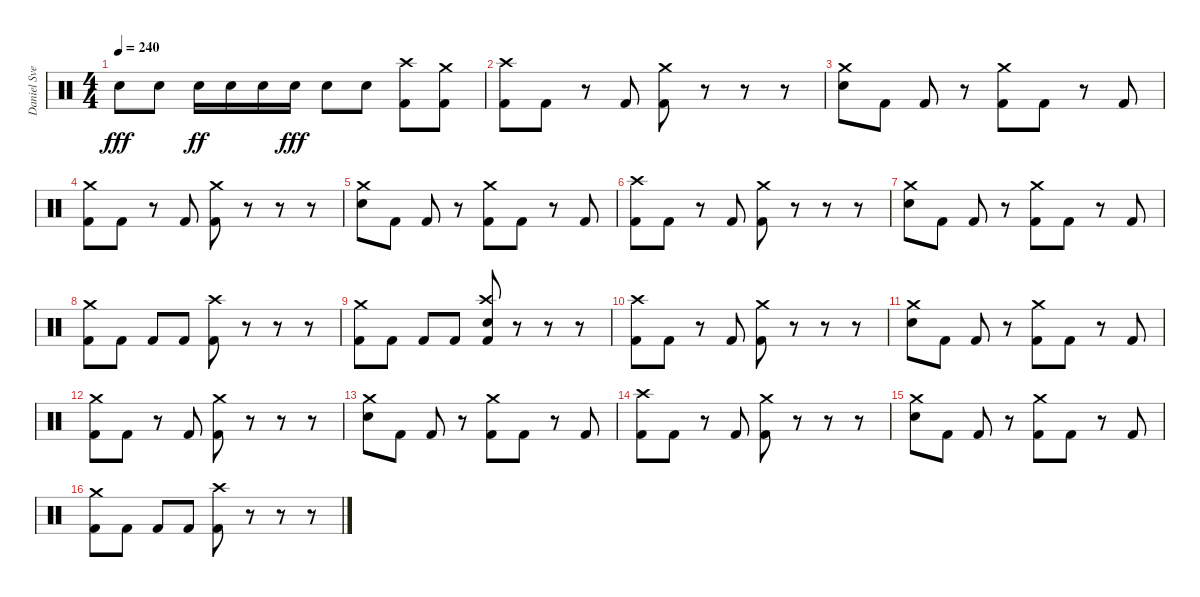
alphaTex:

\track ("Daniel Svensson" "Daniel Sve") {instrument percussion}
\staff {score}
\articulation defaults
\ts (4 4)
\tempo 240
\clef neutral
\ks c "Electric Snare (hit)".8{dy fff} "Electric Snare (hit)".8 "Electric Snare (hit)".16{dy ff} "Electric Snare (hit)".16 "Electric Snare (hit)".16 "Electric Snare (hit)".16{dy fff} "Electric Snare (hit)".8 "Electric Snare (hit)".8
("Crash high (hit)" "Kick (hit) 2").8 ("Crash medium (hit)" "Kick (hit) 2").8 |
("Crash high (hit)" "Kick (hit) 2").8 "Kick (hit) 2".8 r.8 "Kick (hit) 2".8 ("Crash medium (hit)" "Kick (hit) 2").8 r.8 r.8 r.8 |
("Crash medium (hit)" "Electric Snare (hit)").8 "Kick (hit) 2".8 "Kick (hit) 2".8 r.8 ("Crash medium (hit)" "Kick (hit) 2").8 "Kick (hit) 2".8 r.8 "Kick (hit) 2".8 |
("Crash medium (hit)" "Kick (hit) 2").8 "Kick (hit) 2".8 r.8 "Kick (hit) 2".8 ("Crash medium (hit)" "Kick (hit) 2").8 r.8 r.8 r.8 |
("Crash medium (hit)" "Electric Snare (hit)").8 "Kick (hit) 2".8 "Kick (hit) 2".8 r.8 ("Crash medium (hit)" "Kick (hit) 2").8 "Kick (hit) 2".8 r.8 "Kick (hit) 2".8 |
("Crash high (hit)" "Kick (hit) 2").8 "Kick (hit) 2".8 r.8 "Kick (hit) 2".8 ("Crash medium (hit)" "Kick (hit) 2").8 r.8 r.8 r.8 |
("Crash medium (hit)" "Electric Snare (hit)").8 "Kick (hit) 2".8 "Kick (hit) 2".8 r.8 ("Crash medium (hit)" "Kick (hit) 2").8 "Kick (hit) 2".8 r.8 "Kick (hit) 2".8 |
("Crash medium (hit)" "Kick (hit) 2").8 "Kick (hit) 2".8 "Kick (hit) 2".8 "Kick (hit) 2".8 ("Crash high (hit)" "Kick (hit) 2").8 r.8 r.8 r.8 |
("Crash medium (hit)" "Kick (hit) 2").8 "Kick (hit) 2".8 "Kick (hit) 2".8 "Kick (hit) 2".8 ("Crash high (hit)" "Electric Snare (hit)" "Kick (hit) 2").8 r.8 r.8 r.8 |
("Crash high (hit)" "Kick (hit) 2").8 "Kick (hit) 2".8 r.8 "Kick (hit) 2".8 ("Crash medium (hit)" "Kick (hit) 2").8 r.8 r.8 r.8 |
("Crash medium (hit)" "Electric Snare (hit)").8 "Kick (hit) 2".8 "Kick (hit) 2".8 r.8 ("Crash medium (hit)" "Kick (hit) 2").8 "Kick (hit) 2".8 r.8 "Kick (hit) 2".8 |
("Crash medium (hit)" "Kick (hit) 2").8 "Kick (hit) 2".8 r.8 "Kick (hit) 2".8 ("Crash medium (hit)" "Kick (hit) 2").8 r.8 r.8 r.8 |
("Crash medium (hit)" "Electric Snare (hit)").8 "Kick (hit) 2".8 "Kick (hit) 2".8 r.8 ("Crash medium (hit)" "Kick (hit) 2").8 "Kick (hit) 2".8 r.8 "Kick (hit) 2".8 |
("Crash high (hit)" "Kick (hit) 2").8 "Kick (hit) 2".8 r.8 "Kick (hit) 2".8 ("Crash medium (hit)" "Kick (hit) 2").8 r.8 r.8 r.8 |
("Crash medium (hit)" "Electric Snare (hit)").8 "Kick (hit) 2".8 "Kick (hit) 2".8 r.8 ("Crash medium (hit)" "Kick (hit) 2").8 "Kick (hit) 2".8 r.8 "Kick (hit) 2".8 |
("Crash medium (hit)" "Kick (hit) 2").8 "Kick (hit) 2".8 "Kick (hit) 2".8 "Kick (hit) 2".8 ("Crash high (hit)" "Kick (hit) 2").8 r.8 r.8 r.8
